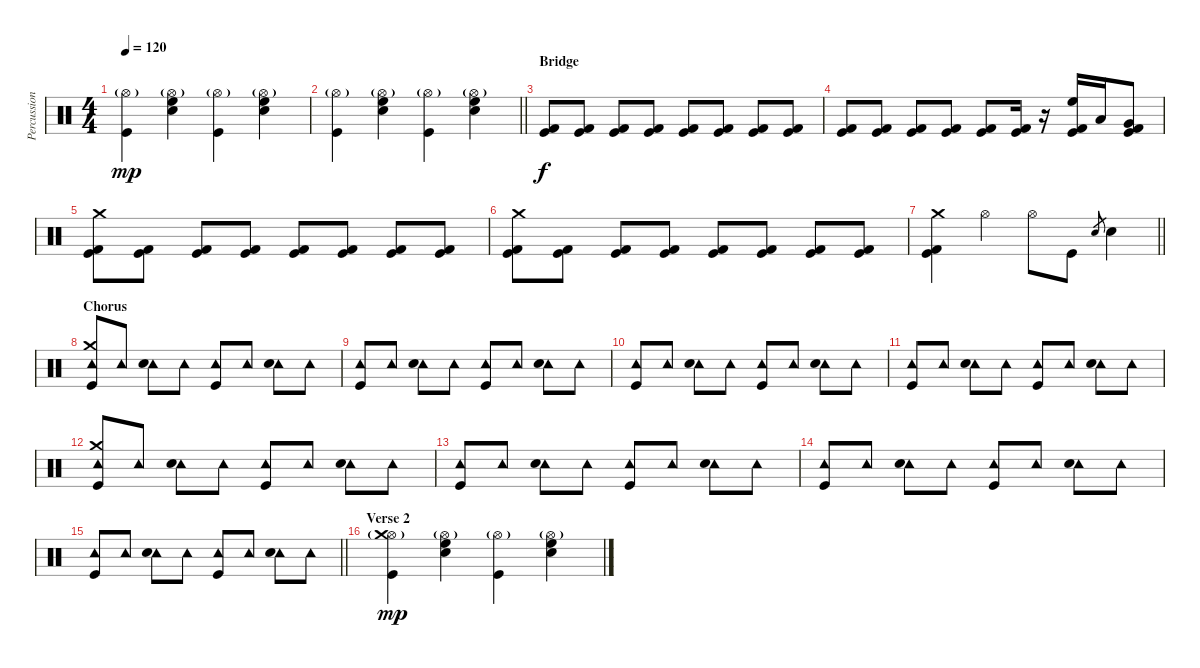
\track ("Percussion" "Percussion") {instrument percussion}
\staff {score}
\articulation defaults
\ts (4 4)
\tempo 120
\clef neutral
\ks c
("Hi-Hat (open)"{g} "Kick (hit)").4{dy mp} ("Hi-Hat (open)"{g} "High Floor Tom (hit)" "Electric Snare (hit)").4 ("Hi-Hat (open)"{g} "Kick (hit)").4 ("Hi-Hat (open)"{g} "High Floor Tom (hit)" "Electric Snare (hit)").4 |
\barLineRight lightlight
("Hi-Hat (open)"{g} "Kick (hit)").4 ("Hi-Hat (open)"{g} "High Floor Tom (hit)" "Electric Snare (hit)").4 ("Hi-Hat (open)"{g} "Kick (hit)").4 ("Hi-Hat (open)"{g} "High Floor Tom (hit)" "Electric Snare (hit)").4 |
\section ("" "Bridge")
("Kick (hit) 2" "Kick (hit)").8{dy f} ("Kick (hit) 2" "Kick (hit)").8 ("Kick (hit) 2" "Kick (hit)").8 ("Kick (hit) 2" "Kick (hit)").8 ("Kick (hit) 2" "Kick (hit)").8 ("Kick (hit) 2" "Kick (hit)").8 ("Kick (hit) 2" "Kick (hit)").8 ("Kick (hit) 2" "Kick (hit)").8 |
("Kick (hit) 2" "Kick (hit)").8 ("Kick (hit) 2" "Kick (hit)").8 ("Kick (hit) 2" "Kick (hit)").8 ("Kick (hit) 2" "Kick (hit)").8 ("Kick (hit) 2" "Kick (hit)").8 ("Kick (hit) 2" "Kick (hit)").16 r.16 ("High Floor Tom (hit)" "Kick (hit) 2" "Kick (hit)").16 "Low Tom (hit)".16 ("Very Low Tom (hit)" "Kick (hit) 2" "Kick (hit)").8 |
("Crash medium (hit)" "Kick (hit) 2" "Kick (hit)").8 ("Kick (hit) 2" "Kick (hit)").8 ("Kick (hit) 2" "Kick (hit)").8 ("Kick (hit) 2" "Kick (hit)").8 ("Kick (hit) 2" "Kick (hit)").8 ("Kick (hit) 2" "Kick (hit)").8 ("Kick (hit) 2" "Kick (hit)").8 ("Kick (hit) 2" "Kick (hit)").8 |
("Crash medium (hit)" "Kick (hit) 2" "Kick (hit)").8 ("Kick (hit) 2" "Kick (hit)").8 ("Kick (hit) 2" "Kick (hit)").8 ("Kick (hit) 2" "Kick (hit)").8 ("Kick (hit) 2" "Kick (hit)").8 ("Kick (hit) 2" "Kick (hit)").8 ("Kick (hit) 2" "Kick (hit)").8 ("Kick (hit) 2" "Kick (hit)").8 |
\barLineRight lightlight
("Crash medium (hit)" "Kick (hit) 2" "Kick (hit)").4 "Hi-Hat (open)".4 "Hi-Hat (open)".8 "Kick (hit)".8 "Electric Snare (hit)".8{gr} "Electric Snare (hit)".4 |
\section ("" "Chorus")
("Crash medium (hit)" "Tambourine (hit)" "Kick (hit)").8 "Tambourine (hit)".8 ("Tambourine (hit)" "Electric Snare (hit)").8 "Tambourine (hit)".8 ("Tambourine (hit)" "Kick (hit)").8 "Tambourine (hit)".8 ("Tambourine (hit)" "Electric Snare (hit)").8 "Tambourine (hit)".8 |
("Tambourine (hit)" "Kick (hit)").8 "Tambourine (hit)".8 ("Tambourine (hit)" "Electric Snare (hit)").8 "Tambourine (hit)".8 ("Tambourine (hit)" "Kick (hit)").8 "Tambourine (hit)".8 ("Tambourine (hit)" "Electric Snare (hit)").8 "Tambourine (hit)".8 |
("Tambourine (hit)" "Kick (hit)").8 "Tambourine (hit)".8 ("Tambourine (hit)" "Electric Snare (hit)").8 "Tambourine (hit)".8 ("Tambourine (hit)" "Kick (hit)").8 "Tambourine (hit)".8 ("Tambourine (hit)" "Electric Snare (hit)").8 "Tambourine (hit)".8 |
("Tambourine (hit)" "Kick (hit)").8 "Tambourine (hit)".8 ("Tambourine (hit)" "Electric Snare (hit)").8 "Tambourine (hit)".8 ("Tambourine (hit)" "Kick (hit)").8 "Tambourine (hit)".8 ("Tambourine (hit)" "Electric Snare (hit)").8 "Tambourine (hit)".8 |
("Crash medium (hit)" "Tambourine (hit)" "Kick (hit)").8 "Tambourine (hit)".8 ("Tambourine (hit)" "Electric Snare (hit)").8 "Tambourine (hit)".8 ("Tambourine (hit)" "Kick (hit)").8 "Tambourine (hit)".8 ("Tambourine (hit)" "Electric Snare (hit)").8 "Tambourine (hit)".8 |
("Tambourine (hit)" "Kick (hit)").8 "Tambourine (hit)".8 ("Tambourine (hit)" "Electric Snare (hit)").8 "Tambourine (hit)".8 ("Tambourine (hit)" "Kick (hit)").8 "Tambourine (hit)".8 ("Tambourine (hit)" "Electric Snare (hit)").8 "Tambourine (hit)".8 |
("Tambourine (hit)" "Kick (hit)").8 "Tambourine (hit)".8 ("Tambourine (hit)" "Electric Snare (hit)").8 "Tambourine (hit)".8 ("Tambourine (hit)" "Kick (hit)").8 "Tambourine (hit)".8 ("Tambourine (hit)" "Electric Snare (hit)").8 "Tambourine (hit)".8 |
\barLineRight lightlight
("Tambourine (hit)" "Kick (hit)").8 "Tambourine (hit)".8 ("Tambourine (hit)" "Electric Snare (hit)").8 "Tambourine (hit)".8 ("Tambourine (hit)" "Kick (hit)").8 "Tambourine (hit)".8 ("Tambourine (hit)" "Electric Snare (hit)").8 "Tambourine (hit)".8 |
\section ("" "Verse 2")
("Hi-Hat (open)"{g} "Crash medium (hit)" "Kick (hit)").4{dy mp} ("Hi-Hat (open)"{g} "High Floor Tom (hit)" "Electric Snare (hit)").4 ("Hi-Hat (open)"{g} "Kick (hit)").4 ("Hi-Hat (open)"{g} "High Floor Tom (hit)" "Electric Snare (hit)").4
